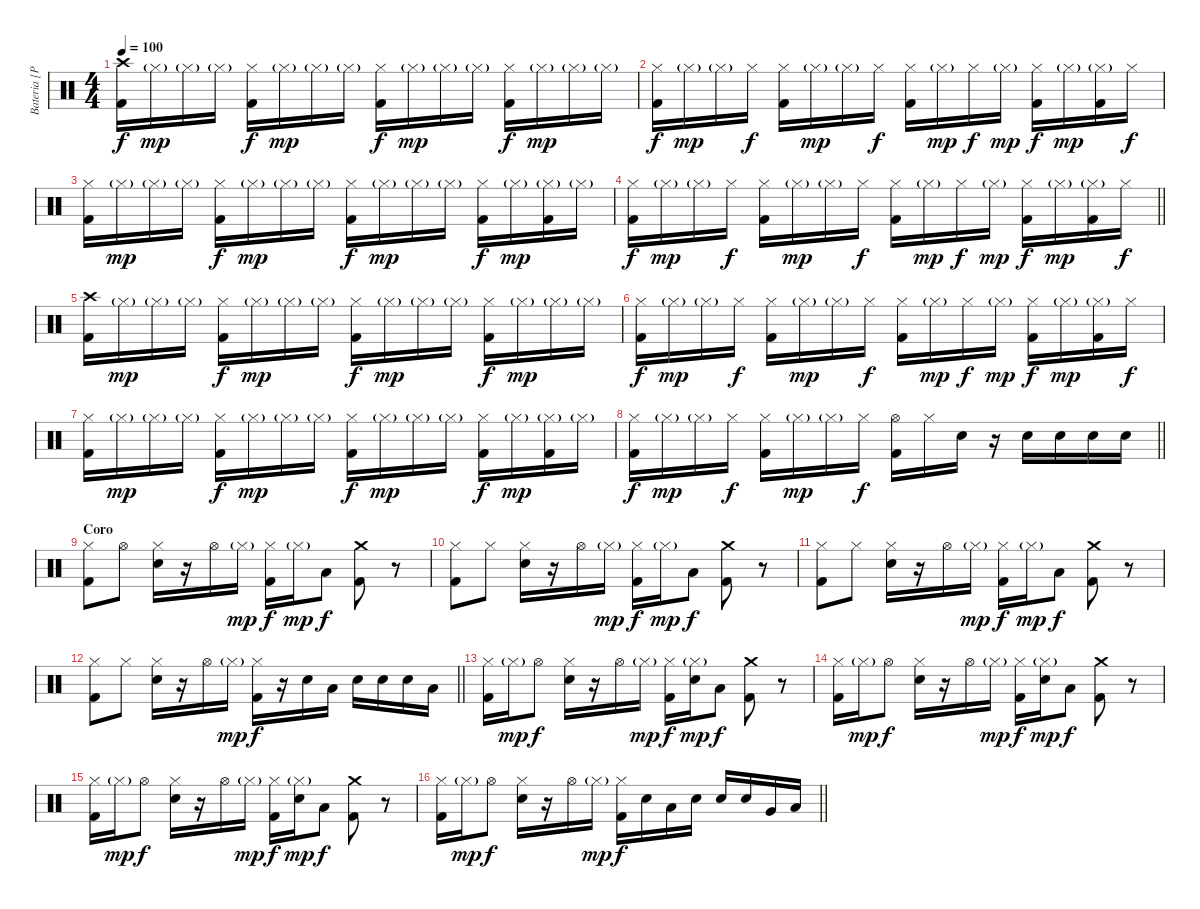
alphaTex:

\track ("Bateria [Paul]" "Bateria [P") {instrument percussion}
\staff {score}
\articulation defaults
\ts (4 4)
\tempo 100
\clef neutral
\ks c
("Crash high (hit)" "Kick (hit) 2").16{dy f} "Hi-Hat (closed)"{g}.16{dy mp} "Hi-Hat (closed)"{g}.16 "Hi-Hat (closed)"{g}.16 ("Hi-Hat (closed)" "Kick (hit) 2").16{dy f} "Hi-Hat (closed)"{g}.16{dy mp} "Hi-Hat (closed)"{g}.16 "Hi-Hat (closed)"{g}.16 ("Hi-Hat (closed)" "Kick (hit) 2").16{dy f} "Hi-Hat (closed)"{g}.16{dy mp} "Hi-Hat (closed)"{g}.16 "Hi-Hat (closed)"{g}.16 ("Hi-Hat (closed)" "Kick (hit) 2").16{dy f} "Hi-Hat (closed)"{g}.16{dy mp} "Hi-Hat (closed)"{g}.16 "Hi-Hat (closed)"{g}.16 |
("Hi-Hat (closed)" "Kick (hit) 2").16{dy f} "Hi-Hat (closed)"{g}.16{dy mp} "Hi-Hat (closed)"{g}.16 "Hi-Hat (closed)".16{dy f} ("Hi-Hat (closed)" "Kick (hit) 2").16 "Hi-Hat (closed)"{g}.16{dy mp} "Hi-Hat (closed)"{g}.16 "Hi-Hat (closed)".16{dy f} ("Hi-Hat (closed)" "Kick (hit) 2").16 "Hi-Hat (closed)"{g}.16{dy mp} "Hi-Hat (closed)".16{dy f} "Hi-Hat (closed)"{g}.16{dy mp} ("Hi-Hat (closed)" "Kick (hit) 2").16{dy f} "Hi-Hat (closed)"{g}.16{dy mp} ("Hi-Hat (closed)"{g} "Kick (hit) 2").16 "Hi-Hat (closed)".16{dy f} |
("Hi-Hat (closed)" "Kick (hit) 2").16 "Hi-Hat (closed)"{g}.16{dy mp} "Hi-Hat (closed)"{g}.16 "Hi-Hat (closed)"{g}.16 ("Hi-Hat (closed)" "Kick (hit) 2").16{dy f} "Hi-Hat (closed)"{g}.16{dy mp} "Hi-Hat (closed)"{g}.16 "Hi-Hat (closed)"{g}.16 ("Hi-Hat (closed)" "Kick (hit) 2").16{dy f} "Hi-Hat (closed)"{g}.16{dy mp} "Hi-Hat (closed)"{g}.16 "Hi-Hat (closed)"{g}.16 ("Hi-Hat (closed)" "Kick (hit) 2").16{dy f} "Hi-Hat (closed)"{g}.16{dy mp} ("Hi-Hat (closed)"{g} "Kick (hit) 2").16 "Hi-Hat (closed)"{g}.16 |
\barLineRight lightlight
("Hi-Hat (closed)" "Kick (hit) 2").16{dy f} "Hi-Hat (closed)"{g}.16{dy mp} "Hi-Hat (closed)"{g}.16 "Hi-Hat (closed)".16{dy f} ("Hi-Hat (closed)" "Kick (hit) 2").16 "Hi-Hat (closed)"{g}.16{dy mp} "Hi-Hat (closed)"{g}.16 "Hi-Hat (closed)".16{dy f} ("Hi-Hat (closed)" "Kick (hit) 2").16 "Hi-Hat (closed)"{g}.16{dy mp} "Hi-Hat (closed)".16{dy f} "Hi-Hat (closed)"{g}.16{dy mp} ("Hi-Hat (closed)" "Kick (hit) 2").16{dy f} "Hi-Hat (closed)"{g}.16{dy mp} ("Hi-Hat (closed)"{g} "Kick (hit) 2").16 "Hi-Hat (closed)".16{dy f} |
("Crash high (hit)" "Kick (hit) 2").16 "Hi-Hat (closed)"{g}.16{dy mp} "Hi-Hat (closed)"{g}.16 "Hi-Hat (closed)"{g}.16 ("Hi-Hat (closed)" "Kick (hit) 2").16{dy f} "Hi-Hat (closed)"{g}.16{dy mp} "Hi-Hat (closed)"{g}.16 "Hi-Hat (closed)"{g}.16 ("Hi-Hat (closed)" "Kick (hit) 2").16{dy f} "Hi-Hat (closed)"{g}.16{dy mp} "Hi-Hat (closed)"{g}.16 "Hi-Hat (closed)"{g}.16 ("Hi-Hat (closed)" "Kick (hit) 2").16{dy f} "Hi-Hat (closed)"{g}.16{dy mp} "Hi-Hat (closed)"{g}.16 "Hi-Hat (closed)"{g}.16 |
("Hi-Hat (closed)" "Kick (hit) 2").16{dy f} "Hi-Hat (closed)"{g}.16{dy mp} "Hi-Hat (closed)"{g}.16 "Hi-Hat (closed)".16{dy f} ("Hi-Hat (closed)" "Kick (hit) 2").16 "Hi-Hat (closed)"{g}.16{dy mp} "Hi-Hat (closed)"{g}.16 "Hi-Hat (closed)".16{dy f} ("Hi-Hat (closed)" "Kick (hit) 2").16 "Hi-Hat (closed)"{g}.16{dy mp} "Hi-Hat (closed)".16{dy f} "Hi-Hat (closed)"{g}.16{dy mp} ("Hi-Hat (closed)" "Kick (hit) 2").16{dy f} "Hi-Hat (closed)"{g}.16{dy mp} ("Hi-Hat (closed)"{g} "Kick (hit) 2").16 "Hi-Hat (closed)".16{dy f} |
("Hi-Hat (closed)" "Kick (hit) 2").16 "Hi-Hat (closed)"{g}.16{dy mp} "Hi-Hat (closed)"{g}.16 "Hi-Hat (closed)"{g}.16 ("Hi-Hat (closed)" "Kick (hit) 2").16{dy f} "Hi-Hat (closed)"{g}.16{dy mp} "Hi-Hat (closed)"{g}.16 "Hi-Hat (closed)"{g}.16 ("Hi-Hat (closed)" "Kick (hit) 2").16{dy f} "Hi-Hat (closed)"{g}.16{dy mp} "Hi-Hat (closed)"{g}.16 "Hi-Hat (closed)"{g}.16 ("Hi-Hat (closed)" "Kick (hit) 2").16{dy f} "Hi-Hat (closed)"{g}.16{dy mp} ("Hi-Hat (closed)"{g} "Kick (hit) 2").16 "Hi-Hat (closed)"{g}.16 |
\barLineRight lightlight
("Hi-Hat (closed)" "Kick (hit) 2").16{dy f} "Hi-Hat (closed)"{g}.16{dy mp} "Hi-Hat (closed)"{g}.16 "Hi-Hat (closed)".16{dy f} ("Hi-Hat (closed)" "Kick (hit) 2").16 "Hi-Hat (closed)"{g}.16{dy mp} "Hi-Hat (closed)"{g}.16 "Hi-Hat (closed)".16{dy f} ("Hi-Hat (open)" "Kick (hit) 2").16 "Hi-Hat (closed)".16 "Snare (hit) 2".16 r.16 "Snare (hit) 2".16 "Snare (hit) 2".16 "Snare (hit) 2".16 "Snare (hit) 2".16 |
\section ("" "Coro")
("Hi-Hat (closed)" "Kick (hit) 2").8 "Hi-Hat (open)".8 ("Hi-Hat (closed)" "Snare (hit) 2").16 r.16 "Hi-Hat (open)".16 "Hi-Hat (closed)"{g}.16{dy mp} ("Hi-Hat (closed)" "Kick (hit) 2").16{dy f} "Hi-Hat (closed)"{g}.16{dy mp} "Low Tom (hit)".8{dy f} ("Crash medium (hit)" "Kick (hit) 2").8 r.8 |
("Hi-Hat (closed)" "Kick (hit) 2").8 "Hi-Hat (closed)".8 ("Hi-Hat (closed)" "Snare (hit) 2").16 r.16 "Hi-Hat (open)".16 "Hi-Hat (closed)"{g}.16{dy mp} ("Hi-Hat (closed)" "Kick (hit) 2").16{dy f} "Hi-Hat (closed)"{g}.16{dy mp} "Low Tom (hit)".8{dy f} ("Crash medium (hit)" "Kick (hit) 2").8 r.8 |
("Hi-Hat (closed)" "Kick (hit) 2").8 "Hi-Hat (closed)".8 ("Hi-Hat (closed)" "Snare (hit) 2").16 r.16 "Hi-Hat (open)".16 "Hi-Hat (closed)"{g}.16{dy mp} ("Hi-Hat (closed)" "Kick (hit) 2").16{dy f} "Hi-Hat (closed)"{g}.16{dy mp} "Low Tom (hit)".8{dy f} ("Crash medium (hit)" "Kick (hit) 2").8 r.8 |
\barLineRight lightlight
("Hi-Hat (closed)" "Kick (hit) 2").8 "Hi-Hat (closed)".8 ("Hi-Hat (closed)" "Snare (hit) 2").16 r.16 "Hi-Hat (open)".16 "Hi-Hat (closed)"{g}.16{dy mp} ("Hi-Hat (closed)" "Kick (hit) 2").16{dy f} r.16 "Snare (hit) 2".16 "Low Tom (hit)".16 "Snare (hit) 2".16 "Snare (hit) 2".16 "Snare (hit) 2".16 "Low Floor Tom (hit)".16 |
("Hi-Hat (closed)" "Kick (hit) 2").16 "Hi-Hat (closed)"{g}.16{dy mp} "Hi-Hat (open)".8{dy f} ("Hi-Hat (closed)" "Snare (hit) 2").16 r.16 "Hi-Hat (open)".16 "Hi-Hat (closed)"{g}.16{dy mp} ("Hi-Hat (closed)" "Kick (hit) 2").16{dy f} ("Hi-Hat (closed)"{g} "Snare (hit) 2").16{dy mp} "Low Tom (hit)".8{dy f} ("Crash medium (hit)" "Kick (hit) 2").8 r.8 |
("Hi-Hat (closed)" "Kick (hit) 2").16 "Hi-Hat (closed)"{g}.16{dy mp} "Hi-Hat (open)".8{dy f} ("Hi-Hat (closed)" "Snare (hit) 2").16 r.16 "Hi-Hat (open)".16 "Hi-Hat (closed)"{g}.16{dy mp} ("Hi-Hat (closed)" "Kick (hit) 2").16{dy f} ("Hi-Hat (closed)"{g} "Snare (hit) 2").16{dy mp} "Low Tom (hit)".8{dy f} ("Crash medium (hit)" "Kick (hit) 2").8 r.8 |
("Hi-Hat (closed)" "Kick (hit) 2").16 "Hi-Hat (closed)"{g}.16{dy mp} "Hi-Hat (open)".8{dy f} ("Hi-Hat (closed)" "Snare (hit) 2").16 r.16 "Hi-Hat (open)".16 "Hi-Hat (closed)"{g}.16{dy mp} ("Hi-Hat (closed)" "Kick (hit) 2").16{dy f} ("Hi-Hat (closed)"{g} "Snare (hit) 2").16{dy mp} "Low Tom (hit)".8{dy f} ("Crash medium (hit)" "Kick (hit) 2").8 r.8 |
\barLineRight lightlight
("Hi-Hat (closed)" "Kick (hit) 2").16 "Hi-Hat (closed)"{g}.16{dy mp} "Hi-Hat (open)".8{dy f} ("Hi-Hat (closed)" "Snare (hit) 2").16 r.16 "Hi-Hat (open)".16 "Hi-Hat (closed)"{g}.16{dy mp} ("Hi-Hat (closed)" "Kick (hit) 2").16{dy f} "Snare (hit) 2".16 "Low Tom (hit)".16 "Snare (hit) 2".16 "Snare (hit) 2".16 "Snare (hit) 2".16 "Very Low Tom (hit)".16 "Low Floor Tom (hit)".16
